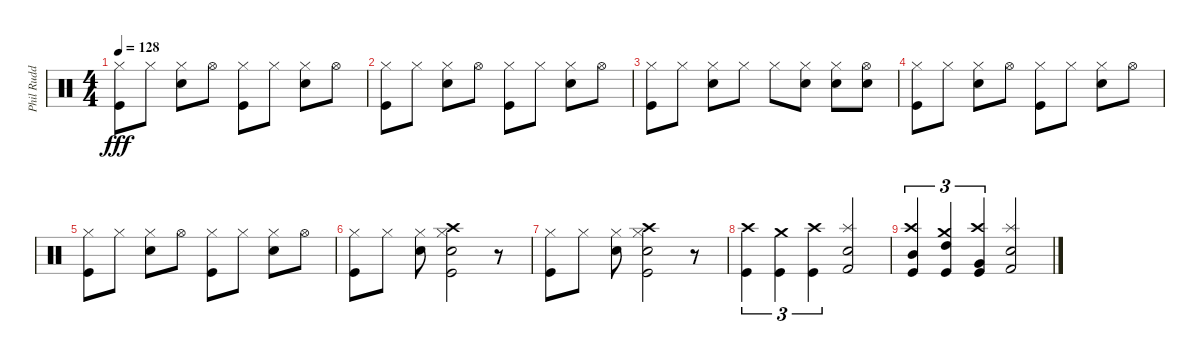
\track ("Phil Rudd" "Phil Rudd") {instrument percussion}
\staff {score}
\articulation defaults
\ts (4 4)
\tempo 128
\clef neutral
\ks c
("Hi-Hat (closed)" "Kick (hit)").8{dy fff} "Hi-Hat (closed)".8 ("Hi-Hat (closed)" "Snare (hit) 2").8 "Hi-Hat (open)".8 ("Hi-Hat (closed)" "Kick (hit)").8 "Hi-Hat (closed)".8 ("Hi-Hat (closed)" "Snare (hit) 2").8 "Hi-Hat (open)".8 |
("Hi-Hat (closed)" "Kick (hit)").8 "Hi-Hat (closed)".8 ("Hi-Hat (closed)" "Snare (hit) 2").8 "Hi-Hat (open)".8 ("Hi-Hat (closed)" "Kick (hit)").8 "Hi-Hat (closed)".8 ("Hi-Hat (closed)" "Snare (hit) 2").8 "Hi-Hat (open)".8 |
("Hi-Hat (closed)" "Kick (hit)").8 "Hi-Hat (closed)".8 ("Hi-Hat (closed)" "Snare (hit) 2").8 "Hi-Hat (closed)".8 "Hi-Hat (closed)".8 ("Hi-Hat (closed)" "Snare (hit) 2").8 ("Hi-Hat (closed)" "Snare (hit) 2").8 ("Hi-Hat (open)" "Snare (hit) 2").8 |
("Hi-Hat (closed)" "Kick (hit)").8 "Hi-Hat (closed)".8 ("Hi-Hat (closed)" "Snare (hit) 2").8 "Hi-Hat (open)".8 ("Hi-Hat (closed)" "Kick (hit)").8 "Hi-Hat (closed)".8 ("Hi-Hat (closed)" "Snare (hit) 2").8 "Hi-Hat (open)".8 |
("Hi-Hat (closed)" "Kick (hit)").8 "Hi-Hat (closed)".8 ("Hi-Hat (closed)" "Snare (hit) 2").8 "Hi-Hat (open)".8 ("Hi-Hat (closed)" "Kick (hit)").8 "Hi-Hat (closed)".8 ("Hi-Hat (closed)" "Snare (hit) 2").8 "Hi-Hat (open)".8 |
("Hi-Hat (closed)" "Kick (hit)").8 "Hi-Hat (closed)".8 ("Hi-Hat (closed)" "Snare (hit) 2").8 ("Hi-Hat (closed)" "Snare (hit) 2" "Kick (hit)" "Crash high (hit)").2 r.8 |
("Hi-Hat (closed)" "Kick (hit)").8 "Hi-Hat (closed)".8 ("Hi-Hat (closed)" "Snare (hit) 2").8 ("Hi-Hat (closed)" "Snare (hit) 2" "Kick (hit)" "Crash high (hit)").2 r.8 |
("Crash high (hit)" "Kick (hit)").4{tu (3 2)} ("Crash medium (hit)" "Kick (hit)").4{tu (3 2)} ("Crash high (hit)" "Kick (hit)").4{tu (3 2)} ("Splash (hit)" "Snare (hit) 2" "Kick (hit) 2").2 |
("Crash high (hit)" "Kick (hit)" "Mid Tom (hit)").4{tu (3 2)} ("Crash medium (hit)" "Kick (hit)" "High Tom (hit)").4{tu (3 2)} ("Crash high (hit)" "Kick (hit)" "Very Low Tom (hit)").4{tu (3 2)} ("Splash (hit)" "Snare (hit) 2" "Kick (hit) 2").2
